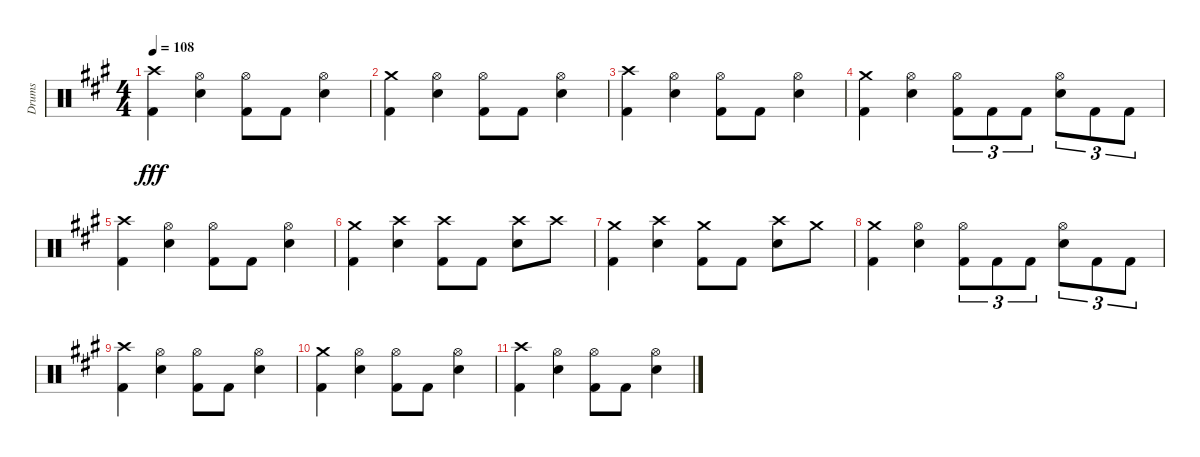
\track ("Drums" "Drums") {instrument percussion}
\staff {score}
\articulation defaults
\ts (4 4)
\tempo 108
\clef neutral
\ks a
("Crash high (hit)" "Kick (hit) 2").4{dy fff} ("Hi-Hat (open)" "Electric Snare (hit)").4 ("Hi-Hat (open)" "Kick (hit) 2").8 "Kick (hit) 2".8 ("Hi-Hat (open)" "Electric Snare (hit)").4 |
("Crash medium (hit)" "Kick (hit) 2").4 ("Hi-Hat (open)" "Electric Snare (hit)").4 ("Hi-Hat (open)" "Kick (hit) 2").8 "Kick (hit) 2".8 ("Hi-Hat (open)" "Electric Snare (hit)").4 |
("Crash high (hit)" "Kick (hit) 2").4 ("Hi-Hat (open)" "Electric Snare (hit)").4 ("Hi-Hat (open)" "Kick (hit) 2").8 "Kick (hit) 2".8 ("Hi-Hat (open)" "Electric Snare (hit)").4 |
("Crash medium (hit)" "Kick (hit) 2").4 ("Hi-Hat (open)" "Electric Snare (hit)").4 ("Hi-Hat (open)" "Kick (hit) 2").8{tu (3 2)} "Kick (hit) 2".8{tu (3 2)} "Kick (hit) 2".8{tu (3 2)} ("Hi-Hat (open)" "Electric Snare (hit)").8{tu (3 2)} "Kick (hit) 2".8{tu (3 2)} "Kick (hit) 2".8{tu (3 2)} |
("Crash high (hit)" "Kick (hit) 2").4 ("Hi-Hat (open)" "Electric Snare (hit)").4 ("Hi-Hat (open)" "Kick (hit) 2").8 "Kick (hit) 2".8 ("Hi-Hat (open)" "Electric Snare (hit)").4 |
("Crash medium (hit)" "Kick (hit) 2").4{volume 11} ("Crash high (hit)" "Electric Snare (hit)").4 ("Crash high (hit)" "Kick (hit) 2").8 "Kick (hit) 2".8 ("Crash high (hit)" "Electric Snare (hit)").8 "Crash high (hit)".8 |
("Crash medium (hit)" "Kick (hit) 2").4 ("Crash high (hit)" "Electric Snare (hit)").4 ("Crash medium (hit)" "Kick (hit) 2").8 "Kick (hit) 2".8 ("Crash high (hit)" "Electric Snare (hit)").8 "Crash medium (hit)".8 |
("Crash medium (hit)" "Kick (hit) 2").4{volume 7} ("Hi-Hat (open)" "Electric Snare (hit)").4 ("Hi-Hat (open)" "Kick (hit) 2").8{tu (3 2)} "Kick (hit) 2".8{tu (3 2)} "Kick (hit) 2".8{tu (3 2)} ("Hi-Hat (open)" "Electric Snare (hit)").8{tu (3 2)} "Kick (hit) 2".8{tu (3 2)} "Kick (hit) 2".8{tu (3 2)} |
("Crash high (hit)" "Kick (hit) 2").4 ("Hi-Hat (open)" "Electric Snare (hit)").4 ("Hi-Hat (open)" "Kick (hit) 2").8 "Kick (hit) 2".8 ("Hi-Hat (open)" "Electric Snare (hit)").4 |
("Crash medium (hit)" "Kick (hit) 2").4{volume 0} ("Hi-Hat (open)" "Electric Snare (hit)").4 ("Hi-Hat (open)" "Kick (hit) 2").8 "Kick (hit) 2".8 ("Hi-Hat (open)" "Electric Snare (hit)").4 |
("Crash high (hit)" "Kick (hit) 2").4 ("Hi-Hat (open)" "Electric Snare (hit)").4 ("Hi-Hat (open)" "Kick (hit) 2").8 "Kick (hit) 2".8 ("Hi-Hat (open)" "Electric Snare (hit)").4
